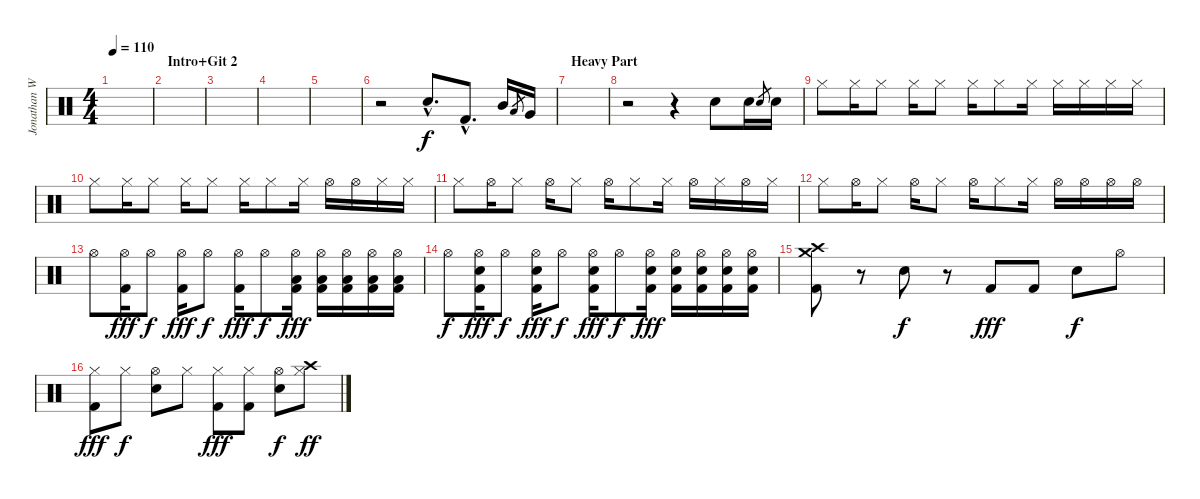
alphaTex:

\track ("Jonathan Wenzel" "Jonathan W") {instrument percussion}
\staff {score}
\articulation defaults
\ts (4 4)
\tempo 110
\clef neutral
\ks c
|
\section ("" "Intro+Git 2")
|
|
|
|
r.2 "Electric Snare (hit)"{hac}.8{d} "Kick (hit) 2"{hac}.8{d} "Mid Tom (hit)".16 "Low Floor Tom (hit)".8{gr} "Very Low Tom (hit)".16 |
\section ("" "Heavy Part")
|
r.2 r.4 "Electric Snare (hit)".8 "Electric Snare (hit)".16 "Electric Snare (hit)".8{gr} "Electric Snare (hit)".16 |
"Hi-Hat (closed)".8 "Hi-Hat (closed)".16 "Hi-Hat (closed)".8 "Hi-Hat (closed)".16 "Hi-Hat (closed)".8 "Hi-Hat (closed)".16 "Hi-Hat (closed)".8 "Hi-Hat (closed)".16 "Hi-Hat (closed)".16 "Hi-Hat (closed)".16 "Hi-Hat (closed)".16 "Hi-Hat (closed)".16 |
"Hi-Hat (closed)".8 "Hi-Hat (closed)".16 "Hi-Hat (closed)".8 "Hi-Hat (closed)".16 "Hi-Hat (closed)".8 "Hi-Hat (closed)".16 "Hi-Hat (closed)".8 "Hi-Hat (closed)".16 "Hi-Hat (open)".16 "Hi-Hat (open)".16 "Hi-Hat (closed)".16 "Hi-Hat (closed)".16 |
"Hi-Hat (closed)".8 "Hi-Hat (open)".16 "Hi-Hat (closed)".8 "Hi-Hat (open)".16 "Hi-Hat (closed)".8 "Hi-Hat (open)".16 "Hi-Hat (closed)".8 "Hi-Hat (closed)".16 "Hi-Hat (open)".16 "Hi-Hat (closed)".16 "Hi-Hat (open)".16 "Hi-Hat (closed)".16 |
"Hi-Hat (closed)".8 "Hi-Hat (open)".16 "Hi-Hat (closed)".8 "Hi-Hat (open)".16 "Hi-Hat (closed)".8 "Hi-Hat (open)".16 "Hi-Hat (closed)".8 "Hi-Hat (closed)".16 "Hi-Hat (open)".16 "Hi-Hat (open)".16 "Hi-Hat (open)".16 "Hi-Hat (open)".16 |
"Hi-Hat (open)".8 ("Hi-Hat (open)" "Kick (hit) 2").16{dy fff} "Hi-Hat (open)".8{dy f} ("Hi-Hat (open)" "Kick (hit) 2").16{dy fff} "Hi-Hat (open)".8{dy f} ("Hi-Hat (open)" "Kick (hit) 2").16{dy fff} "Hi-Hat (open)".8{dy f} ("Hi-Hat (open)" "Low Floor Tom (hit)" "Kick (hit) 2").16{dy fff} ("Hi-Hat (open)" "Low Floor Tom (hit)" "Kick (hit) 2").16 ("Hi-Hat (open)" "Low Floor Tom (hit)" "Kick (hit) 2").16 ("Hi-Hat (open)" "Low Floor Tom (hit)" "Kick (hit) 2").16 ("Hi-Hat (open)" "Low Floor Tom (hit)" "Kick (hit) 2").16 |
"Hi-Hat (open)".8{dy f} ("Hi-Hat (open)" "Electric Snare (hit)" "Kick (hit) 2").16{dy fff} "Hi-Hat (open)".8{dy f} ("Hi-Hat (open)" "Electric Snare (hit)" "Kick (hit) 2").16{dy fff} "Hi-Hat (open)".8{dy f} ("Hi-Hat (open)" "Electric Snare (hit)" "Kick (hit) 2").16{dy fff} "Hi-Hat (open)".8{dy f} ("Hi-Hat (open)" "Electric Snare (hit)" "Kick (hit) 2").16{dy fff} ("Hi-Hat (open)" "Electric Snare (hit)" "Kick (hit) 2").16 ("Hi-Hat (open)" "Electric Snare (hit)" "Kick (hit) 2").16 ("Hi-Hat (open)" "Electric Snare (hit)" "Kick (hit) 2").16 ("Hi-Hat (open)" "Electric Snare (hit)" "Kick (hit) 2").16 |
("Crash medium (hit)" "Crash high (hit)" "Kick (hit) 2").8 r.8 "Electric Snare (hit)".8{dy f} r.8 "Kick (hit) 2".8{dy fff} "Kick (hit) 2".8 "Electric Snare (hit)".8{dy f} "Hi-Hat (open)".8 |
("Hi-Hat (closed)" "Kick (hit) 2").8{dy fff} "Hi-Hat (closed)".8{dy f} ("Hi-Hat (open)" "Electric Snare (hit)").8 "Hi-Hat (closed)".8 ("Hi-Hat (closed)" "Kick (hit) 2").8{dy fff} ("Hi-Hat (closed)" "Kick (hit) 2").8 ("Hi-Hat (open)" "Electric Snare (hit)").8{dy f} ("Crash high (hit)" "Hi-Hat (closed)").8{dy ff}
